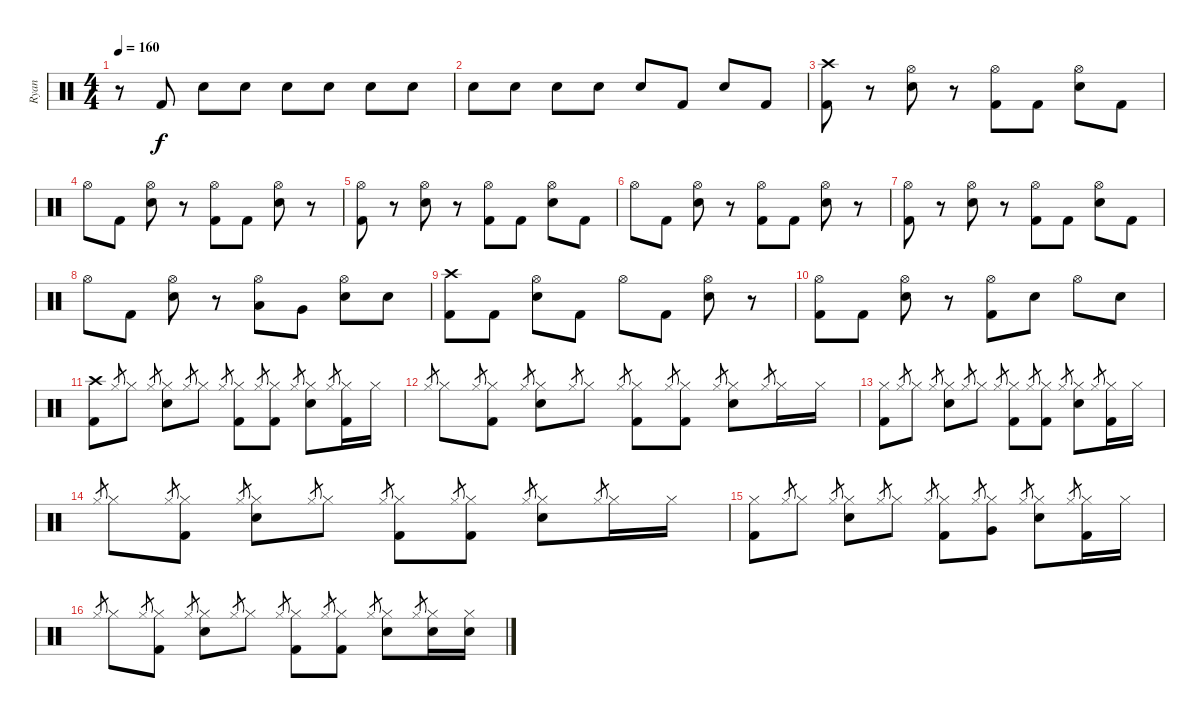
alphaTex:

\track ("Ryan" "Ryan") {instrument percussion}
\staff {score}
\articulation defaults
\ts (4 4)
\tempo 160
\clef neutral
\ks c
r.8{dy f} "Kick (hit) 2".8 "Snare (hit) 2".8 "Snare (hit) 2".8 "Snare (hit) 2".8 "Snare (hit) 2".8 "Snare (hit) 2".8 "Snare (hit) 2".8 |
"Snare (hit) 2".8 "Snare (hit) 2".8 "Snare (hit) 2".8 "Snare (hit) 2".8 "Snare (hit) 2".8 "Kick (hit) 2".8 "Snare (hit) 2".8 "Kick (hit) 2".8 |
("Crash high (hit)" "Kick (hit) 2").8 r.8 ("Hi-Hat (open)" "Snare (hit) 2").8 r.8 ("Hi-Hat (open)" "Kick (hit) 2").8 "Kick (hit) 2".8 ("Hi-Hat (open)" "Snare (hit) 2").8 "Kick (hit) 2".8 |
"Hi-Hat (open)".8 "Kick (hit) 2".8 ("Hi-Hat (open)" "Snare (hit) 2").8 r.8 ("Hi-Hat (open)" "Kick (hit) 2").8 "Kick (hit) 2".8 ("Hi-Hat (open)" "Snare (hit) 2").8 r.8 |
("Hi-Hat (open)" "Kick (hit) 2").8 r.8 ("Hi-Hat (open)" "Snare (hit) 2").8 r.8 ("Hi-Hat (open)" "Kick (hit) 2").8 "Kick (hit) 2".8 ("Hi-Hat (open)" "Snare (hit) 2").8 "Kick (hit) 2".8 |
"Hi-Hat (open)".8 "Kick (hit) 2".8 ("Hi-Hat (open)" "Snare (hit) 2").8 r.8 ("Hi-Hat (open)" "Kick (hit) 2").8 "Kick (hit) 2".8 ("Hi-Hat (open)" "Snare (hit) 2").8 r.8 |
("Hi-Hat (open)" "Kick (hit) 2").8 r.8 ("Hi-Hat (open)" "Snare (hit) 2").8 r.8 ("Hi-Hat (open)" "Kick (hit) 2").8 "Kick (hit) 2".8 ("Hi-Hat (open)" "Snare (hit) 2").8 "Kick (hit) 2".8 |
"Hi-Hat (open)".8 "Kick (hit) 2".8 ("Hi-Hat (open)" "Snare (hit) 2").8 r.8 ("Hi-Hat (open)" "Low Tom (hit)").8 "Very Low Tom (hit)".8 ("Hi-Hat (open)" "Snare (hit) 2").8 "Snare (hit) 2".8 |
("Crash high (hit)" "Kick (hit) 2").8 "Kick (hit) 2".8 ("Hi-Hat (open)" "Snare (hit) 2").8 "Kick (hit) 2".8 "Hi-Hat (open)".8 "Kick (hit) 2".8 ("Hi-Hat (open)" "Snare (hit) 2").8 r.8 |
("Hi-Hat (open)" "Kick (hit) 2").8 "Kick (hit) 2".8 ("Hi-Hat (open)" "Snare (hit) 2").8 r.8 ("Hi-Hat (open)" "Kick (hit) 2").8 "Snare (hit) 2".8 "Hi-Hat (open)".8 "Snare (hit) 2".8 |
("Crash high (hit)" "Kick (hit) 2").8 "Hi-Hat (closed)".8{gr} "Hi-Hat (closed)".8 "Hi-Hat (closed)".8{gr} ("Hi-Hat (closed)" "Snare (hit) 2").8 "Hi-Hat (closed)".8{gr} "Hi-Hat (closed)".8 "Hi-Hat (closed)".8{gr} ("Hi-Hat (closed)" "Kick (hit) 2").8 "Hi-Hat (closed)".8{gr} ("Hi-Hat (closed)" "Kick (hit) 2").8 "Hi-Hat (closed)".8{gr} ("Hi-Hat (closed)" "Snare (hit) 2").8 "Hi-Hat (closed)".8{gr} ("Hi-Hat (closed)" "Kick (hit) 2").16 "Hi-Hat (closed)".16 |
"Hi-Hat (closed)".8{gr} "Hi-Hat (closed)".8 "Hi-Hat (closed)".8{gr} ("Hi-Hat (closed)" "Kick (hit) 2").8 "Hi-Hat (closed)".8{gr} ("Hi-Hat (closed)" "Snare (hit) 2").8 "Hi-Hat (closed)".8{gr} "Hi-Hat (closed)".8 "Hi-Hat (closed)".8{gr} ("Hi-Hat (closed)" "Kick (hit) 2").8 "Hi-Hat (closed)".8{gr} ("Hi-Hat (closed)" "Kick (hit) 2").8 "Hi-Hat (closed)".8{gr} ("Hi-Hat (closed)" "Snare (hit) 2").8 "Hi-Hat (closed)".8{gr} "Hi-Hat (closed)".16 "Hi-Hat (closed)".16 |
("Hi-Hat (closed)" "Kick (hit) 2").8 "Hi-Hat (closed)".8{gr} "Hi-Hat (closed)".8 "Hi-Hat (closed)".8{gr} ("Hi-Hat (closed)" "Snare (hit) 2").8 "Hi-Hat (closed)".8{gr} "Hi-Hat (closed)".8 "Hi-Hat (closed)".8{gr} ("Hi-Hat (closed)" "Kick (hit) 2").8 "Hi-Hat (closed)".8{gr} ("Hi-Hat (closed)" "Kick (hit) 2").8 "Hi-Hat (closed)".8{gr} ("Hi-Hat (closed)" "Snare (hit) 2").8 "Hi-Hat (closed)".8{gr} ("Hi-Hat (closed)" "Kick (hit) 2").16 "Hi-Hat (closed)".16 |
"Hi-Hat (closed)".8{gr} "Hi-Hat (closed)".8 "Hi-Hat (closed)".8{gr} ("Hi-Hat (closed)" "Kick (hit) 2").8 "Hi-Hat (closed)".8{gr} ("Hi-Hat (closed)" "Snare (hit) 2").8 "Hi-Hat (closed)".8{gr} "Hi-Hat (closed)".8 "Hi-Hat (closed)".8{gr} ("Hi-Hat (closed)" "Kick (hit) 2").8 "Hi-Hat (closed)".8{gr} ("Hi-Hat (closed)" "Kick (hit) 2").8 "Hi-Hat (closed)".8{gr} ("Hi-Hat (closed)" "Snare (hit) 2").8 "Hi-Hat (closed)".8{gr} "Hi-Hat (closed)".16 "Hi-Hat (closed)".16 |
("Hi-Hat (closed)" "Kick (hit) 2").8 "Hi-Hat (closed)".8{gr} "Hi-Hat (closed)".8 "Hi-Hat (closed)".8{gr} ("Hi-Hat (closed)" "Snare (hit) 2").8 "Hi-Hat (closed)".8{gr} "Hi-Hat (closed)".8 "Hi-Hat (closed)".8{gr} ("Hi-Hat (closed)" "Kick (hit) 2").8 "Hi-Hat (closed)".8{gr} ("Hi-Hat (closed)" "Very Low Tom (hit)").8 "Hi-Hat (closed)".8{gr} ("Hi-Hat (closed)" "Snare (hit) 2").8 "Hi-Hat (closed)".8{gr} ("Hi-Hat (closed)" "Kick (hit) 2").16 "Hi-Hat (closed)".16 |
"Hi-Hat (closed)".8{gr} "Hi-Hat (closed)".8 "Hi-Hat (closed)".8{gr} ("Hi-Hat (closed)" "Kick (hit) 2").8 "Hi-Hat (closed)".8{gr} ("Hi-Hat (closed)" "Snare (hit) 2").8 "Hi-Hat (closed)".8{gr} "Hi-Hat (closed)".8 "Hi-Hat (closed)".8{gr} ("Hi-Hat (closed)" "Kick (hit) 2").8 "Hi-Hat (closed)".8{gr} ("Hi-Hat (closed)" "Kick (hit) 2").8 "Hi-Hat (closed)".8{gr} ("Hi-Hat (closed)" "Snare (hit) 2").8 "Hi-Hat (closed)".8{gr} ("Hi-Hat (closed)" "Snare (hit) 2").16 ("Hi-Hat (closed)" "Snare (hit) 2").16
